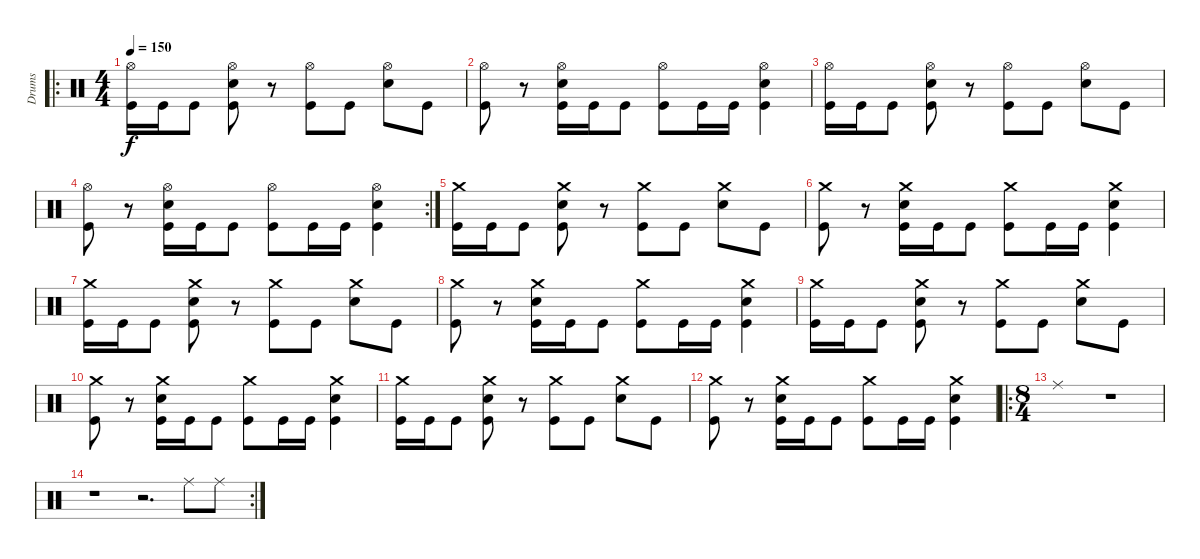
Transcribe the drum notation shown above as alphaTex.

\track ("Drums" "Drums") {instrument percussion}
\staff {score}
\articulation defaults
\ro
\ts (4 4)
\tempo 150
\clef neutral
\ks c
("Hi-Hat (open)" "Kick (hit)").16{dy f} "Kick (hit)".16 "Kick (hit)".8 ("Hi-Hat (open)" "Snare (hit) 2" "Kick (hit)").8 r.8 ("Hi-Hat (open)" "Kick (hit)").8 "Kick (hit)".8 ("Hi-Hat (open)" "Snare (hit) 2").8 "Kick (hit)".8 |
("Hi-Hat (open)" "Kick (hit)").8 r.8 ("Hi-Hat (open)" "Snare (hit) 2" "Kick (hit)").16 "Kick (hit)".16 "Kick (hit)".8 ("Hi-Hat (open)" "Kick (hit)").8 "Kick (hit)".16 "Kick (hit)".16 ("Hi-Hat (open)" "Snare (hit) 2" "Kick (hit)").4 |
("Hi-Hat (open)" "Kick (hit)").16 "Kick (hit)".16 "Kick (hit)".8 ("Hi-Hat (open)" "Snare (hit) 2" "Kick (hit)").8 r.8 ("Hi-Hat (open)" "Kick (hit)").8 "Kick (hit)".8 ("Hi-Hat (open)" "Snare (hit) 2").8 "Kick (hit)".8 |
\rc 2
("Hi-Hat (open)" "Kick (hit)").8 r.8 ("Hi-Hat (open)" "Snare (hit) 2" "Kick (hit)").16 "Kick (hit)".16 "Kick (hit)".8 ("Hi-Hat (open)" "Kick (hit)").8 "Kick (hit)".16 "Kick (hit)".16 ("Hi-Hat (open)" "Snare (hit) 2" "Kick (hit)").4 |
("Crash medium (hit)" "Kick (hit)").16 "Kick (hit)".16 "Kick (hit)".8 ("Crash medium (hit)" "Snare (hit) 2" "Kick (hit)").8 r.8 ("Crash medium (hit)" "Kick (hit)").8 "Kick (hit)".8 ("Crash medium (hit)" "Snare (hit) 2").8 "Kick (hit)".8 |
("Crash medium (hit)" "Kick (hit)").8 r.8 ("Crash medium (hit)" "Snare (hit) 2" "Kick (hit)").16 "Kick (hit)".16 "Kick (hit)".8 ("Crash medium (hit)" "Kick (hit)").8 "Kick (hit)".16 "Kick (hit)".16 ("Crash medium (hit)" "Snare (hit) 2" "Kick (hit)").4 |
("Crash medium (hit)" "Kick (hit)").16 "Kick (hit)".16 "Kick (hit)".8 ("Crash medium (hit)" "Snare (hit) 2" "Kick (hit)").8 r.8 ("Crash medium (hit)" "Kick (hit)").8 "Kick (hit)".8 ("Crash medium (hit)" "Snare (hit) 2").8 "Kick (hit)".8 |
("Crash medium (hit)" "Kick (hit)").8 r.8 ("Crash medium (hit)" "Snare (hit) 2" "Kick (hit)").16 "Kick (hit)".16 "Kick (hit)".8 ("Crash medium (hit)" "Kick (hit)").8 "Kick (hit)".16 "Kick (hit)".16 ("Crash medium (hit)" "Snare (hit) 2" "Kick (hit)").4 |
("Crash medium (hit)" "Kick (hit)").16 "Kick (hit)".16 "Kick (hit)".8 ("Crash medium (hit)" "Snare (hit) 2" "Kick (hit)").8 r.8 ("Crash medium (hit)" "Kick (hit)").8 "Kick (hit)".8 ("Crash medium (hit)" "Snare (hit) 2").8 "Kick (hit)".8 |
("Crash medium (hit)" "Kick (hit)").8 r.8 ("Crash medium (hit)" "Snare (hit) 2" "Kick (hit)").16 "Kick (hit)".16 "Kick (hit)".8 ("Crash medium (hit)" "Kick (hit)").8 "Kick (hit)".16 "Kick (hit)".16 ("Crash medium (hit)" "Snare (hit) 2" "Kick (hit)").4 |
("Crash medium (hit)" "Kick (hit)").16 "Kick (hit)".16 "Kick (hit)".8 ("Crash medium (hit)" "Snare (hit) 2" "Kick (hit)").8 r.8 ("Crash medium (hit)" "Kick (hit)").8 "Kick (hit)".8 ("Crash medium (hit)" "Snare (hit) 2").8 "Kick (hit)".8 |
("Crash medium (hit)" "Kick (hit)").8 r.8 ("Crash medium (hit)" "Snare (hit) 2" "Kick (hit)").16 "Kick (hit)".16 "Kick (hit)".8 ("Crash medium (hit)" "Kick (hit)").8 "Kick (hit)".16 "Kick (hit)".16 ("Crash medium (hit)" "Snare (hit) 2" "Kick (hit)").4 |
\ro
\ts (8 4)
"Ride (middle)".1 r.1 |
\rc 2
r.1 r.2{d} "Ride (middle)".8 "Ride (middle)".8
